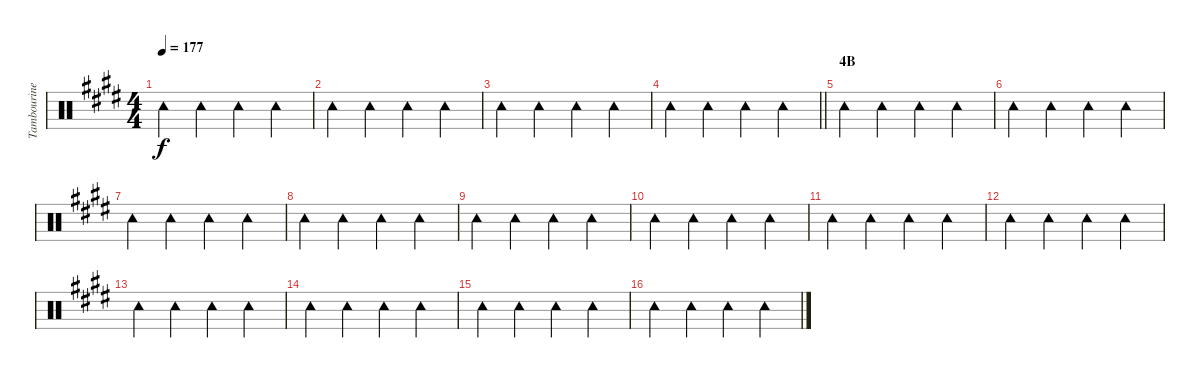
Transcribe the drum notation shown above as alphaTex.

\track ("Tambourine" "Tambourine") {instrument percussion}
\staff {score}
\articulation defaults
\ts (4 4)
\tempo 177
\clef neutral
\ks e "Tambourine (hit)".4{dy f} "Tambourine (hit)".4 "Tambourine (hit)".4 "Tambourine (hit)".4
|
"Tambourine (hit)".4 "Tambourine (hit)".4 "Tambourine (hit)".4 "Tambourine (hit)".4 |
"Tambourine (hit)".4 "Tambourine (hit)".4 "Tambourine (hit)".4 "Tambourine (hit)".4 |
\barLineRight lightlight "Tambourine (hit)".4 "Tambourine (hit)".4 "Tambourine (hit)".4 "Tambourine (hit)".4
|
\section ("" "4B")
"Tambourine (hit)".4 "Tambourine (hit)".4 "Tambourine (hit)".4 "Tambourine (hit)".4 |
"Tambourine (hit)".4 "Tambourine (hit)".4 "Tambourine (hit)".4 "Tambourine (hit)".4 |
"Tambourine (hit)".4 "Tambourine (hit)".4 "Tambourine (hit)".4 "Tambourine (hit)".4 |
"Tambourine (hit)".4 "Tambourine (hit)".4 "Tambourine (hit)".4 "Tambourine (hit)".4 |
"Tambourine (hit)".4 "Tambourine (hit)".4 "Tambourine (hit)".4 "Tambourine (hit)".4 |
"Tambourine (hit)".4 "Tambourine (hit)".4 "Tambourine (hit)".4 "Tambourine (hit)".4 |
"Tambourine (hit)".4 "Tambourine (hit)".4 "Tambourine (hit)".4 "Tambourine (hit)".4 |
"Tambourine (hit)".4 "Tambourine (hit)".4 "Tambourine (hit)".4 "Tambourine (hit)".4 |
"Tambourine (hit)".4 "Tambourine (hit)".4 "Tambourine (hit)".4 "Tambourine (hit)".4 |
"Tambourine (hit)".4 "Tambourine (hit)".4 "Tambourine (hit)".4 "Tambourine (hit)".4 |
"Tambourine (hit)".4 "Tambourine (hit)".4 "Tambourine (hit)".4 "Tambourine (hit)".4 |
"Tambourine (hit)".4 "Tambourine (hit)".4 "Tambourine (hit)".4 "Tambourine (hit)".4
